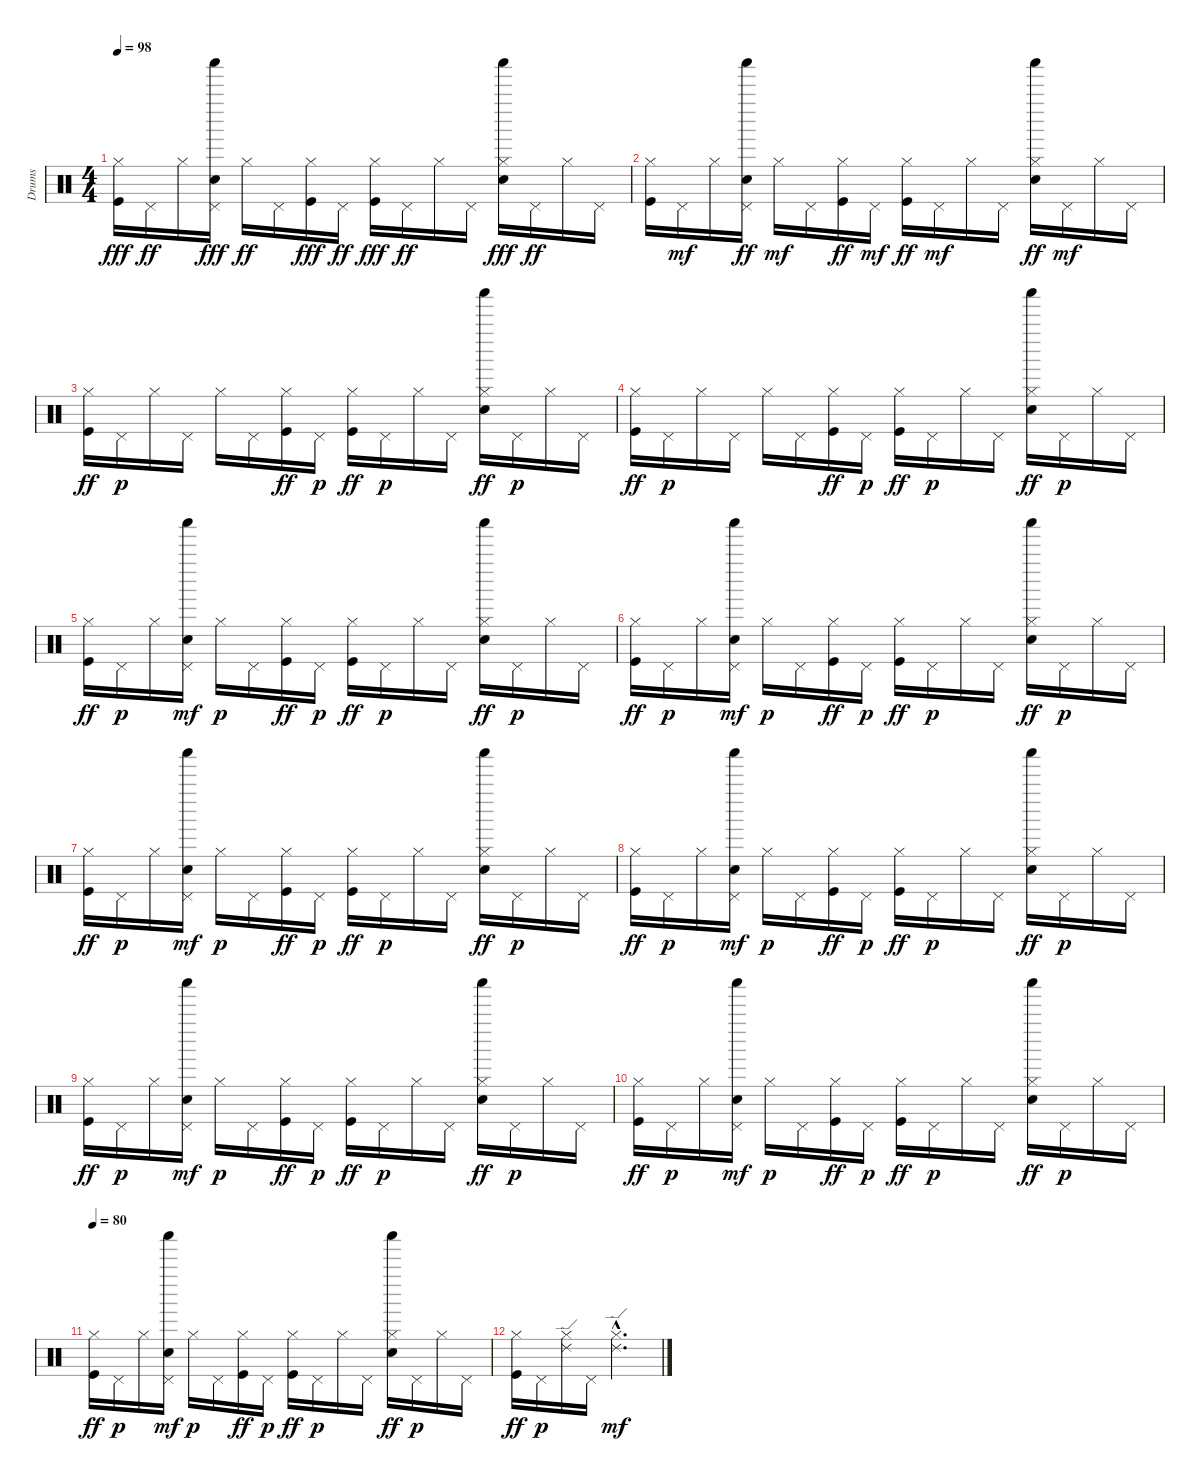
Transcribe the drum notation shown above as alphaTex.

\track ("Drums" "Drums") {instrument percussion}
\staff {score}
\articulation defaults
\ts (4 4)
\tempo 98
\clef neutral
\ks c
("Hi-Hat (closed)" "Kick (hit)").16{dy fff} "Pedal Hi-Hat (hit)".16{dy ff} "Hi-Hat (closed)".16 ("Pedal Hi-Hat (hit)" "Shaker (hit)" "Electric Snare (hit)").16{dy fff} "Hi-Hat (closed)".16{dy ff} "Pedal Hi-Hat (hit)".16 ("Hi-Hat (closed)" "Kick (hit)").16{dy fff} "Pedal Hi-Hat (hit)".16{dy ff} ("Hi-Hat (closed)" "Kick (hit)").16{dy fff} "Pedal Hi-Hat (hit)".16{dy ff} "Hi-Hat (closed)".16 "Pedal Hi-Hat (hit)".16 ("Hi-Hat (closed)" "Shaker (hit)" "Electric Snare (hit)").16{dy fff} "Pedal Hi-Hat (hit)".16{dy ff} "Hi-Hat (closed)".16 "Pedal Hi-Hat (hit)".16 |
("Hi-Hat (closed)" "Kick (hit)").16 "Pedal Hi-Hat (hit)".16{dy mf} "Hi-Hat (closed)".16 ("Pedal Hi-Hat (hit)" "Shaker (hit)" "Electric Snare (hit)").16{dy ff} "Hi-Hat (closed)".16{dy mf} "Pedal Hi-Hat (hit)".16 ("Hi-Hat (closed)" "Kick (hit)").16{dy ff} "Pedal Hi-Hat (hit)".16{dy mf} ("Hi-Hat (closed)" "Kick (hit)").16{dy ff} "Pedal Hi-Hat (hit)".16{dy mf} "Hi-Hat (closed)".16 "Pedal Hi-Hat (hit)".16 ("Hi-Hat (closed)" "Shaker (hit)" "Electric Snare (hit)").16{dy ff} "Pedal Hi-Hat (hit)".16{dy mf} "Hi-Hat (closed)".16 "Pedal Hi-Hat (hit)".16 |
("Hi-Hat (closed)" "Kick (hit)").16{dy ff} "Pedal Hi-Hat (hit)".16{dy p} "Hi-Hat (closed)".16 "Pedal Hi-Hat (hit)".16 "Hi-Hat (closed)".16 "Pedal Hi-Hat (hit)".16 ("Hi-Hat (closed)" "Kick (hit)").16{dy ff} "Pedal Hi-Hat (hit)".16{dy p} ("Hi-Hat (closed)" "Kick (hit)").16{dy ff} "Pedal Hi-Hat (hit)".16{dy p} "Hi-Hat (closed)".16 "Pedal Hi-Hat (hit)".16 ("Hi-Hat (closed)" "Shaker (hit)" "Electric Snare (hit)").16{dy ff} "Pedal Hi-Hat (hit)".16{dy p} "Hi-Hat (closed)".16 "Pedal Hi-Hat (hit)".16 |
("Hi-Hat (closed)" "Kick (hit)").16{dy ff} "Pedal Hi-Hat (hit)".16{dy p} "Hi-Hat (closed)".16 "Pedal Hi-Hat (hit)".16 "Hi-Hat (closed)".16 "Pedal Hi-Hat (hit)".16 ("Hi-Hat (closed)" "Kick (hit)").16{dy ff} "Pedal Hi-Hat (hit)".16{dy p} ("Hi-Hat (closed)" "Kick (hit)").16{dy ff} "Pedal Hi-Hat (hit)".16{dy p} "Hi-Hat (closed)".16 "Pedal Hi-Hat (hit)".16 ("Hi-Hat (closed)" "Shaker (hit)" "Electric Snare (hit)").16{dy ff} "Pedal Hi-Hat (hit)".16{dy p} "Hi-Hat (closed)".16 "Pedal Hi-Hat (hit)".16 |
("Hi-Hat (closed)" "Kick (hit)").16{dy ff} "Pedal Hi-Hat (hit)".16{dy p} "Hi-Hat (closed)".16 ("Pedal Hi-Hat (hit)" "Shaker (hit)" "Electric Snare (hit)").16{dy mf} "Hi-Hat (closed)".16{dy p} "Pedal Hi-Hat (hit)".16 ("Hi-Hat (closed)" "Kick (hit)").16{dy ff} "Pedal Hi-Hat (hit)".16{dy p} ("Hi-Hat (closed)" "Kick (hit)").16{dy ff} "Pedal Hi-Hat (hit)".16{dy p} "Hi-Hat (closed)".16 "Pedal Hi-Hat (hit)".16 ("Hi-Hat (closed)" "Shaker (hit)" "Electric Snare (hit)").16{dy ff} "Pedal Hi-Hat (hit)".16{dy p} "Hi-Hat (closed)".16 "Pedal Hi-Hat (hit)".16 |
("Hi-Hat (closed)" "Kick (hit)").16{dy ff} "Pedal Hi-Hat (hit)".16{dy p} "Hi-Hat (closed)".16 ("Pedal Hi-Hat (hit)" "Shaker (hit)" "Electric Snare (hit)").16{dy mf} "Hi-Hat (closed)".16{dy p} "Pedal Hi-Hat (hit)".16 ("Hi-Hat (closed)" "Kick (hit)").16{dy ff} "Pedal Hi-Hat (hit)".16{dy p} ("Hi-Hat (closed)" "Kick (hit)").16{dy ff} "Pedal Hi-Hat (hit)".16{dy p} "Hi-Hat (closed)".16 "Pedal Hi-Hat (hit)".16 ("Hi-Hat (closed)" "Shaker (hit)" "Electric Snare (hit)").16{dy ff} "Pedal Hi-Hat (hit)".16{dy p} "Hi-Hat (closed)".16 "Pedal Hi-Hat (hit)".16 |
("Hi-Hat (closed)" "Kick (hit)").16{dy ff} "Pedal Hi-Hat (hit)".16{dy p} "Hi-Hat (closed)".16 ("Pedal Hi-Hat (hit)" "Shaker (hit)" "Electric Snare (hit)").16{dy mf} "Hi-Hat (closed)".16{dy p} "Pedal Hi-Hat (hit)".16 ("Hi-Hat (closed)" "Kick (hit)").16{dy ff} "Pedal Hi-Hat (hit)".16{dy p} ("Hi-Hat (closed)" "Kick (hit)").16{dy ff} "Pedal Hi-Hat (hit)".16{dy p} "Hi-Hat (closed)".16 "Pedal Hi-Hat (hit)".16 ("Hi-Hat (closed)" "Shaker (hit)" "Electric Snare (hit)").16{dy ff} "Pedal Hi-Hat (hit)".16{dy p} "Hi-Hat (closed)".16 "Pedal Hi-Hat (hit)".16 |
("Hi-Hat (closed)" "Kick (hit)").16{dy ff} "Pedal Hi-Hat (hit)".16{dy p} "Hi-Hat (closed)".16 ("Pedal Hi-Hat (hit)" "Shaker (hit)" "Electric Snare (hit)").16{dy mf} "Hi-Hat (closed)".16{dy p} "Pedal Hi-Hat (hit)".16 ("Hi-Hat (closed)" "Kick (hit)").16{dy ff} "Pedal Hi-Hat (hit)".16{dy p} ("Hi-Hat (closed)" "Kick (hit)").16{dy ff} "Pedal Hi-Hat (hit)".16{dy p} "Hi-Hat (closed)".16 "Pedal Hi-Hat (hit)".16 ("Hi-Hat (closed)" "Shaker (hit)" "Electric Snare (hit)").16{dy ff} "Pedal Hi-Hat (hit)".16{dy p} "Hi-Hat (closed)".16 "Pedal Hi-Hat (hit)".16 |
("Hi-Hat (closed)" "Kick (hit)").16{dy ff} "Pedal Hi-Hat (hit)".16{dy p} "Hi-Hat (closed)".16 ("Pedal Hi-Hat (hit)" "Shaker (hit)" "Electric Snare (hit)").16{dy mf} "Hi-Hat (closed)".16{dy p} "Pedal Hi-Hat (hit)".16 ("Hi-Hat (closed)" "Kick (hit)").16{dy ff} "Pedal Hi-Hat (hit)".16{dy p} ("Hi-Hat (closed)" "Kick (hit)").16{dy ff} "Pedal Hi-Hat (hit)".16{dy p} "Hi-Hat (closed)".16 "Pedal Hi-Hat (hit)".16 ("Hi-Hat (closed)" "Shaker (hit)" "Electric Snare (hit)").16{dy ff} "Pedal Hi-Hat (hit)".16{dy p} "Hi-Hat (closed)".16 "Pedal Hi-Hat (hit)".16 |
("Hi-Hat (closed)" "Kick (hit)").16{dy ff} "Pedal Hi-Hat (hit)".16{dy p} "Hi-Hat (closed)".16 ("Pedal Hi-Hat (hit)" "Shaker (hit)" "Electric Snare (hit)").16{dy mf} "Hi-Hat (closed)".16{dy p} "Pedal Hi-Hat (hit)".16 ("Hi-Hat (closed)" "Kick (hit)").16{dy ff} "Pedal Hi-Hat (hit)".16{dy p} ("Hi-Hat (closed)" "Kick (hit)").16{dy ff} "Pedal Hi-Hat (hit)".16{dy p} "Hi-Hat (closed)".16 "Pedal Hi-Hat (hit)".16 ("Hi-Hat (closed)" "Shaker (hit)" "Electric Snare (hit)").16{dy ff} "Pedal Hi-Hat (hit)".16{dy p} "Hi-Hat (closed)".16 "Pedal Hi-Hat (hit)".16 |
\tempo 80
("Hi-Hat (closed)" "Kick (hit)").16{dy ff} "Pedal Hi-Hat (hit)".16{dy p} "Hi-Hat (closed)".16 ("Pedal Hi-Hat (hit)" "Shaker (hit)" "Electric Snare (hit)").16{dy mf} "Hi-Hat (closed)".16{dy p} "Pedal Hi-Hat (hit)".16 ("Hi-Hat (closed)" "Kick (hit)").16{dy ff} "Pedal Hi-Hat (hit)".16{dy p} ("Hi-Hat (closed)" "Kick (hit)").16{dy ff} "Pedal Hi-Hat (hit)".16{dy p} "Hi-Hat (closed)".16 "Pedal Hi-Hat (hit)".16 ("Hi-Hat (closed)" "Shaker (hit)" "Electric Snare (hit)").16{dy ff} "Pedal Hi-Hat (hit)".16{dy p} "Hi-Hat (closed)".16 "Pedal Hi-Hat (hit)".16 |
("Hi-Hat (closed)" "Kick (hit)").16{dy ff} "Pedal Hi-Hat (hit)".16{dy p} ("Hi-Hat (closed)" "Ride (edge) 2").16 "Pedal Hi-Hat (hit)".16 ("Hi-Hat (closed)"{hac} "Ride (edge) 2"{hac}).2{d dy mf}
